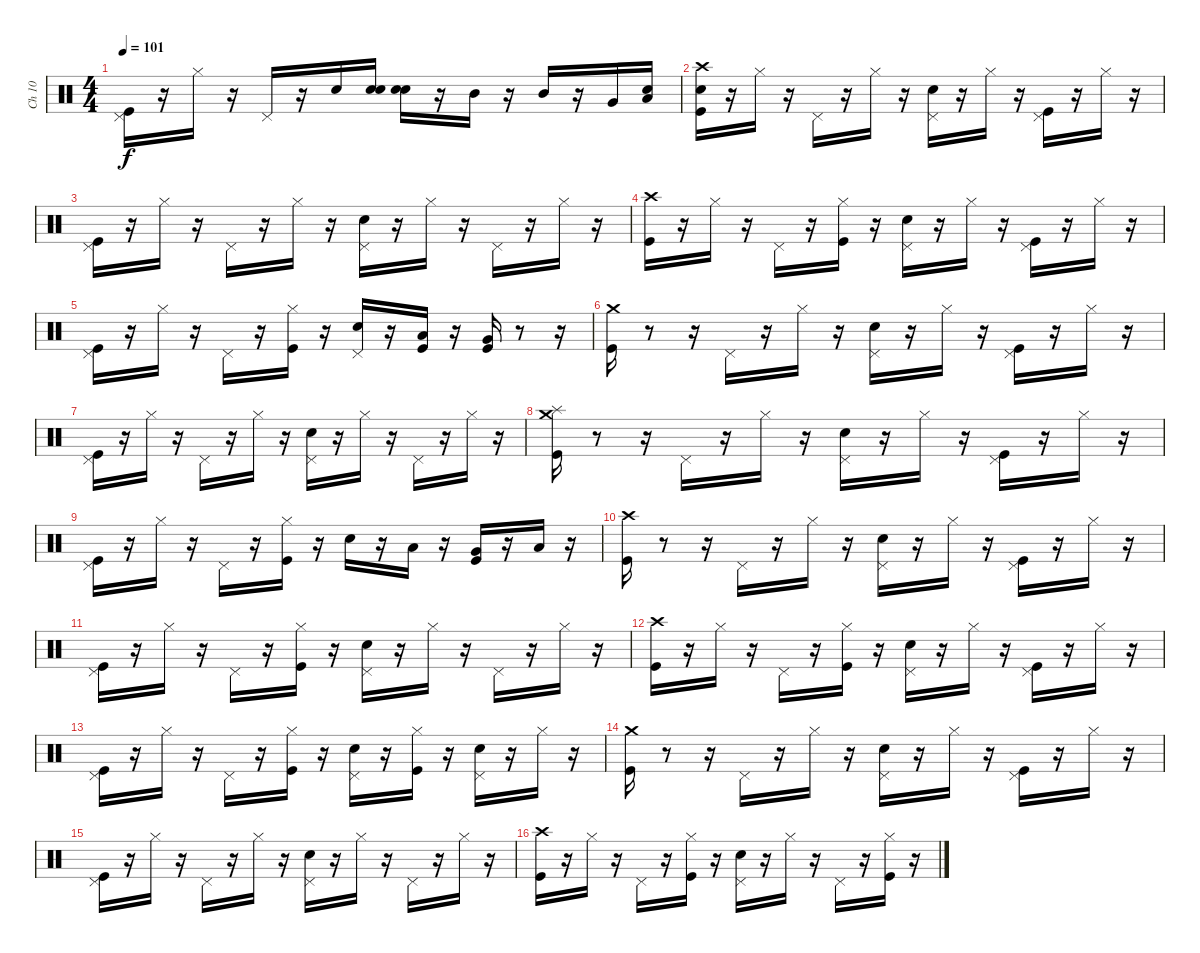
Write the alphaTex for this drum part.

\track ("Ch 10   " "Ch 10   ") {instrument percussion}
\staff {score}
\articulation defaults
\ts (4 4)
\tempo 101
\clef neutral
\ks c
("Kick (hit)" "Pedal Hi-Hat (hit)").16{dy f} r.16 "Hi-Hat (closed)".16 r.16 "Pedal Hi-Hat (hit)".16 r.16 "Snare (hit) 2".16 ("Snare (hit)" "Snare (hit) 2").16 ("Snare (hit)" "Snare (hit) 2").16 r.16 "Mid Tom (hit)".16 r.16 "Mid Tom (hit)".16 r.16 "Very Low Tom (hit)".16 ("Snare (hit)" "Low Floor Tom (hit)").16 |
("Snare (hit)" "Kick (hit)" "Crash high (hit)").16 r.16 "Hi-Hat (closed)".16 r.16 "Pedal Hi-Hat (hit)".16 r.16 "Hi-Hat (closed)".16 r.16 ("Snare (hit) 2" "Pedal Hi-Hat (hit)").16 r.16 "Hi-Hat (closed)".16 r.16 ("Kick (hit)" "Pedal Hi-Hat (hit)").16 r.16 "Hi-Hat (closed)".16 r.16 |
("Kick (hit)" "Pedal Hi-Hat (hit)").16 r.16 "Hi-Hat (closed)".16 r.16 "Pedal Hi-Hat (hit)".16 r.16 "Hi-Hat (closed)".16 r.16 ("Snare (hit) 2" "Pedal Hi-Hat (hit)").16 r.16 "Hi-Hat (closed)".16 r.16 "Pedal Hi-Hat (hit)".16 r.16 "Hi-Hat (closed)".16 r.16 |
("Kick (hit)" "Crash high (hit)").16 r.16 "Hi-Hat (closed)".16 r.16 "Pedal Hi-Hat (hit)".16 r.16 ("Kick (hit)" "Hi-Hat (closed)").16 r.16 ("Pedal Hi-Hat (hit)" "Snare (hit) 2").16 r.16 "Hi-Hat (closed)".16 r.16 ("Kick (hit)" "Pedal Hi-Hat (hit)").16 r.16 "Hi-Hat (closed)".16 r.16 |
("Kick (hit)" "Pedal Hi-Hat (hit)").16 r.16 "Hi-Hat (closed)".16 r.16 "Pedal Hi-Hat (hit)".16 r.16 ("Hi-Hat (closed)" "Kick (hit)").16 r.16 ("Snare (hit) 2" "Pedal Hi-Hat (hit)").16 r.16 ("Low Tom (hit)" "Kick (hit)").16 r.16 ("Kick (hit)" "Very Low Tom (hit)").16 r.8 r.16 |
("Crash medium (hit)" "Kick (hit)").16 r.8 r.16 "Pedal Hi-Hat (hit)".16 r.16 "Hi-Hat (closed)".16 r.16 ("Snare (hit) 2" "Pedal Hi-Hat (hit)").16 r.16 "Hi-Hat (closed)".16 r.16 ("Kick (hit)" "Pedal Hi-Hat (hit)").16 r.16 "Hi-Hat (closed)".16 r.16 |
("Kick (hit)" "Pedal Hi-Hat (hit)").16 r.16 "Hi-Hat (closed)".16 r.16 "Pedal Hi-Hat (hit)".16 r.16 "Hi-Hat (closed)".16 r.16 ("Snare (hit) 2" "Pedal Hi-Hat (hit)").16 r.16 "Hi-Hat (closed)".16 r.16 "Pedal Hi-Hat (hit)".16 r.16 "Hi-Hat (closed)".16 r.16 |
("Kick (hit)" "Splash (hit)" "Crash medium (hit)").16 r.8 r.16 "Pedal Hi-Hat (hit)".16 r.16 "Hi-Hat (closed)".16 r.16 ("Snare (hit) 2" "Pedal Hi-Hat (hit)").16 r.16 "Hi-Hat (closed)".16 r.16 ("Kick (hit)" "Pedal Hi-Hat (hit)").16 r.16 "Hi-Hat (closed)".16 r.16 |
("Kick (hit)" "Pedal Hi-Hat (hit)").16 r.16 "Hi-Hat (closed)".16 r.16 "Pedal Hi-Hat (hit)".16 r.16 ("Kick (hit)" "Hi-Hat (closed)").16 r.16 "Snare (hit) 2".16 r.16 "Low Tom (hit)".16 r.16 ("Kick (hit)" "Very Low Tom (hit)").16 r.16 "Low Floor Tom (hit)".16 r.16 |
("Kick (hit)" "Crash high (hit)").16 r.8 r.16 "Pedal Hi-Hat (hit)".16 r.16 "Hi-Hat (closed)".16 r.16 ("Snare (hit) 2" "Pedal Hi-Hat (hit)").16 r.16 "Hi-Hat (closed)".16 r.16 ("Kick (hit)" "Pedal Hi-Hat (hit)").16 r.16 "Hi-Hat (closed)".16 r.16 |
("Kick (hit)" "Pedal Hi-Hat (hit)").16 r.16 "Hi-Hat (closed)".16 r.16 "Pedal Hi-Hat (hit)".16 r.16 ("Kick (hit)" "Hi-Hat (closed)").16 r.16 ("Snare (hit) 2" "Pedal Hi-Hat (hit)").16 r.16 "Hi-Hat (closed)".16 r.16 "Pedal Hi-Hat (hit)".16 r.16 "Hi-Hat (closed)".16 r.16 |
("Kick (hit)" "Crash high (hit)").16 r.16 "Hi-Hat (closed)".16 r.16 "Pedal Hi-Hat (hit)".16 r.16 ("Kick (hit)" "Hi-Hat (closed)").16 r.16 ("Snare (hit) 2" "Pedal Hi-Hat (hit)").16 r.16 "Hi-Hat (closed)".16 r.16 ("Kick (hit)" "Pedal Hi-Hat (hit)").16 r.16 "Hi-Hat (closed)".16 r.16 |
("Kick (hit)" "Pedal Hi-Hat (hit)").16 r.16 "Hi-Hat (closed)".16 r.16 "Pedal Hi-Hat (hit)".16 r.16 ("Kick (hit)" "Hi-Hat (closed)").16 r.16 ("Snare (hit) 2" "Pedal Hi-Hat (hit)").16 r.16 ("Hi-Hat (closed)" "Kick (hit)").16 r.16 ("Snare (hit) 2" "Pedal Hi-Hat (hit)").16 r.16 "Hi-Hat (closed)".16 r.16 |
("Kick (hit)" "Crash medium (hit)").16 r.8 r.16 "Pedal Hi-Hat (hit)".16 r.16 "Hi-Hat (closed)".16 r.16 ("Snare (hit) 2" "Pedal Hi-Hat (hit)").16 r.16 "Hi-Hat (closed)".16 r.16 ("Kick (hit)" "Pedal Hi-Hat (hit)").16 r.16 "Hi-Hat (closed)".16 r.16 |
("Kick (hit)" "Pedal Hi-Hat (hit)").16 r.16 "Hi-Hat (closed)".16 r.16 "Pedal Hi-Hat (hit)".16 r.16 "Hi-Hat (closed)".16 r.16 ("Snare (hit) 2" "Pedal Hi-Hat (hit)").16 r.16 "Hi-Hat (closed)".16 r.16 "Pedal Hi-Hat (hit)".16 r.16 "Hi-Hat (closed)".16 r.16 |
("Kick (hit)" "Crash high (hit)").16 r.16 "Hi-Hat (closed)".16 r.16 "Pedal Hi-Hat (hit)".16 r.16 ("Kick (hit)" "Hi-Hat (closed)").16 r.16 ("Snare (hit) 2" "Pedal Hi-Hat (hit)").16 r.16 "Hi-Hat (closed)".16 r.16 "Pedal Hi-Hat (hit)".16 r.16 ("Kick (hit)" "Hi-Hat (closed)").16 r.16
